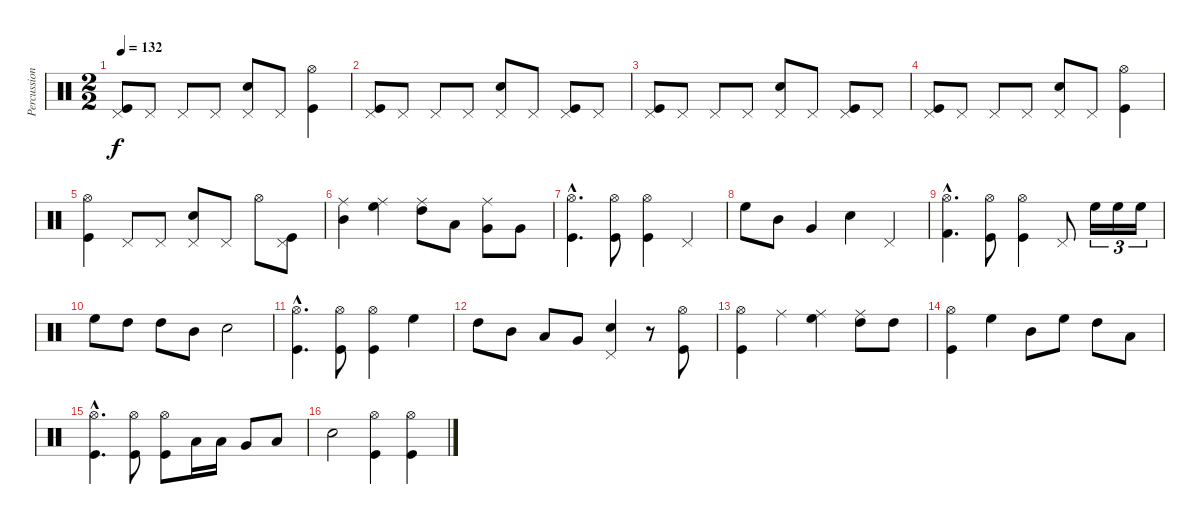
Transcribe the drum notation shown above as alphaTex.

\track ("Percussion" "Percussion") {instrument percussion}
\staff {score}
\articulation defaults
\ts (2 2)
\tempo 132
\clef neutral
\ks c
("Pedal Hi-Hat (hit)" "Kick (hit)").8{dy f} "Pedal Hi-Hat (hit)".8 "Pedal Hi-Hat (hit)".8 "Pedal Hi-Hat (hit)".8 ("Pedal Hi-Hat (hit)" "Electric Snare (hit)").8 "Pedal Hi-Hat (hit)".8 ("Hi-Hat (open)" "Kick (hit)").4 |
("Pedal Hi-Hat (hit)" "Kick (hit)").8 "Pedal Hi-Hat (hit)".8 "Pedal Hi-Hat (hit)".8 "Pedal Hi-Hat (hit)".8 ("Pedal Hi-Hat (hit)" "Electric Snare (hit)").8 "Pedal Hi-Hat (hit)".8 ("Pedal Hi-Hat (hit)" "Kick (hit)").8 "Pedal Hi-Hat (hit)".8 |
("Pedal Hi-Hat (hit)" "Kick (hit)").8 "Pedal Hi-Hat (hit)".8 "Pedal Hi-Hat (hit)".8 "Pedal Hi-Hat (hit)".8 ("Pedal Hi-Hat (hit)" "Electric Snare (hit)").8 "Pedal Hi-Hat (hit)".8 ("Pedal Hi-Hat (hit)" "Kick (hit)").8 "Pedal Hi-Hat (hit)".8 |
("Pedal Hi-Hat (hit)" "Kick (hit)").8 "Pedal Hi-Hat (hit)".8 "Pedal Hi-Hat (hit)".8 "Pedal Hi-Hat (hit)".8 ("Pedal Hi-Hat (hit)" "Electric Snare (hit)").8 "Pedal Hi-Hat (hit)".8 ("Hi-Hat (open)" "Kick (hit)").4 |
("Hi-Hat (open)" "Kick (hit)").4 "Pedal Hi-Hat (hit)".8 "Pedal Hi-Hat (hit)".8 ("Pedal Hi-Hat (hit)" "Electric Snare (hit)").8 "Pedal Hi-Hat (hit)".8 "Hi-Hat (open)".8 ("Pedal Hi-Hat (hit)" "Kick (hit)").8 |
("Ride (middle)" "Mid Tom (hit)").4 ("Ride (middle)" "High Floor Tom (hit)").4 ("Ride (middle)" "High Tom (hit)").8 "Low Tom (hit)".8 ("Ride (middle)" "Very Low Tom (hit)").8 "Very Low Tom (hit)".8 |
("Kick (hit)"{hac} "Hi-Hat (open)"{hac}).4{d} ("Kick (hit)" "Hi-Hat (open)").8 ("Kick (hit)" "Hi-Hat (open)").4 "Pedal Hi-Hat (hit)".4 |
"High Floor Tom (hit)".8 "Mid Tom (hit)".8 "Very Low Tom (hit)".4 "Electric Snare (hit)".4 "Pedal Hi-Hat (hit)".4 |
("Kick (hit) 2"{hac} "Hi-Hat (open)"{hac}).4{d} ("Kick (hit)" "Hi-Hat (open)").8 ("Kick (hit)" "Hi-Hat (open)").4 "Pedal Hi-Hat (hit)".8 "High Floor Tom (hit)".16{tu (3 2)} "High Floor Tom (hit)".16{tu (3 2)} "High Floor Tom (hit)".16{tu (3 2)} |
"High Floor Tom (hit)".8 "High Tom (hit)".8 "High Tom (hit)".8 "Mid Tom (hit)".8 "Electric Snare (hit)".2 |
("Kick (hit)"{hac} "Hi-Hat (open)"{hac}).4{d} ("Kick (hit)" "Hi-Hat (open)").8 ("Kick (hit)" "Hi-Hat (open)").4 "High Floor Tom (hit)".4 |
"High Tom (hit)".8 "Mid Tom (hit)".8 "Low Tom (hit)".8 "Very Low Tom (hit)".8 ("Electric Snare (hit)" "Pedal Hi-Hat (hit)").4 r.8 ("Kick (hit)" "Hi-Hat (open)").8 |
("Kick (hit)" "Hi-Hat (open)").4 "Ride (middle)".4 ("High Floor Tom (hit)" "Ride (middle)").4 ("High Tom (hit)" "Ride (middle)").8 "High Tom (hit)".8 |
("Kick (hit)" "Hi-Hat (open)").4 "High Floor Tom (hit)".4 "Mid Tom (hit)".8 "High Floor Tom (hit)".8 "High Tom (hit)".8 "Low Tom (hit)".8 |
("Hi-Hat (open)"{hac} "Kick (hit)"{hac}).4{d} ("Hi-Hat (open)" "Kick (hit)").8 ("Hi-Hat (open)" "Kick (hit)").8 "Low Floor Tom (hit)".16 "Low Floor Tom (hit)".16 "Very Low Tom (hit)".8 "Low Floor Tom (hit)".8 |
"Electric Snare (hit)".2 ("Kick (hit)" "Hi-Hat (open)").4 ("Kick (hit)" "Hi-Hat (open)").4
